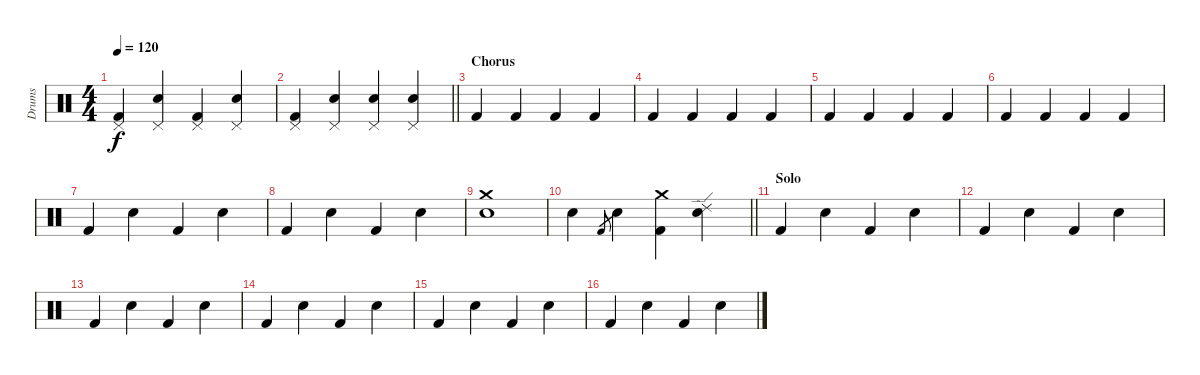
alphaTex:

\track ("Drums" "Drums") {instrument percussion}
\staff {score}
\articulation defaults
\ts (4 4)
\tempo 120
\clef neutral
\ks c
("Kick (hit) 2" "Pedal Hi-Hat (hit)").4{dy f} ("Snare (hit) 2" "Pedal Hi-Hat (hit)").4 ("Kick (hit) 2" "Pedal Hi-Hat (hit)").4 ("Snare (hit) 2" "Pedal Hi-Hat (hit)").4 |
\barLineRight lightlight
("Kick (hit) 2" "Pedal Hi-Hat (hit)").4 ("Snare (hit) 2" "Pedal Hi-Hat (hit)").4 ("Snare (hit) 2" "Pedal Hi-Hat (hit)").4 ("Snare (hit) 2" "Pedal Hi-Hat (hit)").4 |
\section ("" "Chorus")
"Kick (hit) 2".4 "Kick (hit) 2".4 "Kick (hit) 2".4 "Kick (hit) 2".4 |
"Kick (hit) 2".4 "Kick (hit) 2".4 "Kick (hit) 2".4 "Kick (hit) 2".4 |
"Kick (hit) 2".4 "Kick (hit) 2".4 "Kick (hit) 2".4 "Kick (hit) 2".4 |
"Kick (hit) 2".4 "Kick (hit) 2".4 "Kick (hit) 2".4 "Kick (hit) 2".4 |
"Kick (hit) 2".4 "Snare (hit) 2".4 "Kick (hit) 2".4 "Snare (hit) 2".4 |
"Kick (hit) 2".4 "Snare (hit) 2".4 "Kick (hit) 2".4 "Snare (hit) 2".4 |
("Snare (hit) 2" "Crash medium (hit)").1 |
\barLineRight lightlight "Snare (hit) 2".4 "Kick (hit) 2".8{gr} "Snare (hit) 2".4
("Kick (hit) 2" "Crash medium (hit)").4 ("Snare (hit) 2" "Ride (edge) 2").4 |
\section ("" "Solo")
"Kick (hit) 2".4 "Snare (hit) 2".4 "Kick (hit) 2".4 "Snare (hit) 2".4 |
"Kick (hit) 2".4 "Snare (hit) 2".4 "Kick (hit) 2".4 "Snare (hit) 2".4 |
"Kick (hit) 2".4 "Snare (hit) 2".4 "Kick (hit) 2".4 "Snare (hit) 2".4 |
"Kick (hit) 2".4 "Snare (hit) 2".4 "Kick (hit) 2".4 "Snare (hit) 2".4 |
"Kick (hit) 2".4 "Snare (hit) 2".4 "Kick (hit) 2".4 "Snare (hit) 2".4 |
"Kick (hit) 2".4 "Snare (hit) 2".4 "Kick (hit) 2".4 "Snare (hit) 2".4
